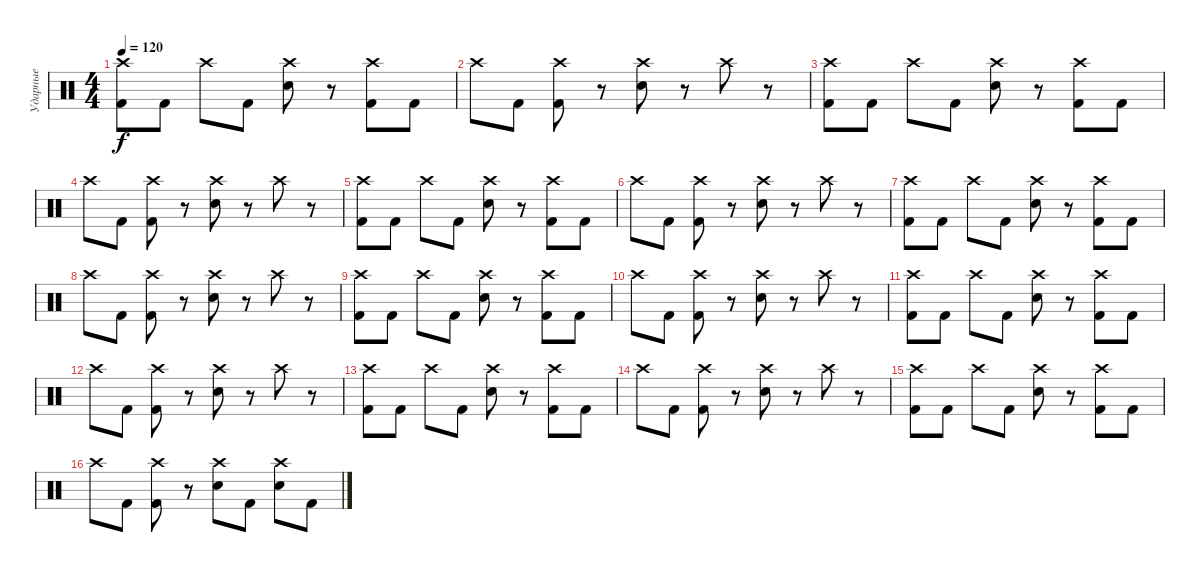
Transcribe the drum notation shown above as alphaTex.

\track ("Ударные" "Ударные") {instrument percussion}
\staff {score}
\articulation defaults
\ts (4 4)
\tempo 120
\clef neutral
\ks c
("Crash high (hit)" "Kick (hit) 2").8{dy f} "Kick (hit) 2".8 "Crash high (hit)".8 "Kick (hit) 2".8 ("Crash high (hit)" "Electric Snare (hit)").8 r.8 ("Crash high (hit)" "Kick (hit) 2").8 "Kick (hit) 2".8 |
"Crash high (hit)".8 "Kick (hit) 2".8 ("Crash high (hit)" "Kick (hit) 2").8 r.8 ("Crash high (hit)" "Electric Snare (hit)").8 r.8 "Crash high (hit)".8 r.8 |
("Crash high (hit)" "Kick (hit) 2").8 "Kick (hit) 2".8 "Crash high (hit)".8 "Kick (hit) 2".8 ("Crash high (hit)" "Electric Snare (hit)").8 r.8 ("Crash high (hit)" "Kick (hit) 2").8 "Kick (hit) 2".8 |
"Crash high (hit)".8 "Kick (hit) 2".8 ("Crash high (hit)" "Kick (hit) 2").8 r.8 ("Crash high (hit)" "Electric Snare (hit)").8 r.8 "Crash high (hit)".8 r.8 |
("Crash high (hit)" "Kick (hit) 2").8 "Kick (hit) 2".8 "Crash high (hit)".8 "Kick (hit) 2".8 ("Crash high (hit)" "Electric Snare (hit)").8 r.8 ("Crash high (hit)" "Kick (hit) 2").8 "Kick (hit) 2".8 |
"Crash high (hit)".8 "Kick (hit) 2".8 ("Crash high (hit)" "Kick (hit) 2").8 r.8 ("Crash high (hit)" "Electric Snare (hit)").8 r.8 "Crash high (hit)".8 r.8 |
("Crash high (hit)" "Kick (hit) 2").8 "Kick (hit) 2".8 "Crash high (hit)".8 "Kick (hit) 2".8 ("Crash high (hit)" "Electric Snare (hit)").8 r.8 ("Crash high (hit)" "Kick (hit) 2").8 "Kick (hit) 2".8 |
"Crash high (hit)".8 "Kick (hit) 2".8 ("Crash high (hit)" "Kick (hit) 2").8 r.8 ("Crash high (hit)" "Electric Snare (hit)").8 r.8 "Crash high (hit)".8 r.8 |
("Crash high (hit)" "Kick (hit) 2").8 "Kick (hit) 2".8 "Crash high (hit)".8 "Kick (hit) 2".8 ("Crash high (hit)" "Electric Snare (hit)").8 r.8 ("Crash high (hit)" "Kick (hit) 2").8 "Kick (hit) 2".8 |
"Crash high (hit)".8 "Kick (hit) 2".8 ("Crash high (hit)" "Kick (hit) 2").8 r.8 ("Crash high (hit)" "Electric Snare (hit)").8 r.8 "Crash high (hit)".8 r.8 |
("Crash high (hit)" "Kick (hit) 2").8 "Kick (hit) 2".8 "Crash high (hit)".8 "Kick (hit) 2".8 ("Crash high (hit)" "Electric Snare (hit)").8 r.8 ("Crash high (hit)" "Kick (hit) 2").8 "Kick (hit) 2".8 |
"Crash high (hit)".8 "Kick (hit) 2".8 ("Crash high (hit)" "Kick (hit) 2").8 r.8 ("Crash high (hit)" "Electric Snare (hit)").8 r.8 "Crash high (hit)".8 r.8 |
("Crash high (hit)" "Kick (hit) 2").8 "Kick (hit) 2".8 "Crash high (hit)".8 "Kick (hit) 2".8 ("Crash high (hit)" "Electric Snare (hit)").8 r.8 ("Crash high (hit)" "Kick (hit) 2").8 "Kick (hit) 2".8 |
"Crash high (hit)".8 "Kick (hit) 2".8 ("Crash high (hit)" "Kick (hit) 2").8 r.8 ("Crash high (hit)" "Electric Snare (hit)").8 r.8 "Crash high (hit)".8 r.8 |
("Crash high (hit)" "Kick (hit) 2").8 "Kick (hit) 2".8 "Crash high (hit)".8 "Kick (hit) 2".8 ("Crash high (hit)" "Electric Snare (hit)").8 r.8 ("Crash high (hit)" "Kick (hit) 2").8 "Kick (hit) 2".8 |
"Crash high (hit)".8 "Kick (hit) 2".8 ("Crash high (hit)" "Kick (hit) 2").8 r.8 ("Crash high (hit)" "Electric Snare (hit)").8 "Kick (hit) 2".8 ("Crash high (hit)" "Electric Snare (hit)").8 "Kick (hit) 2".8
